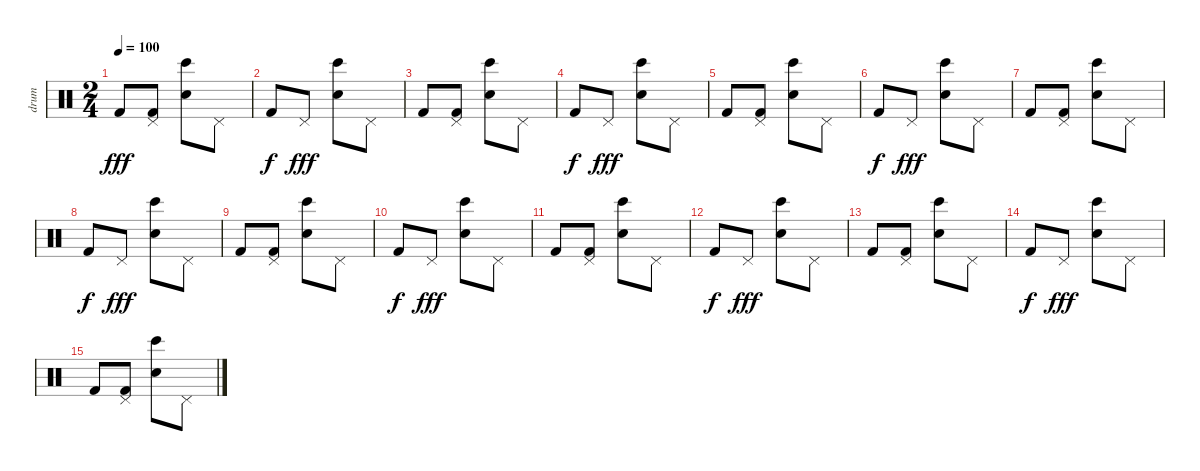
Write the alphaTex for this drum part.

\track ("drum" "drum") {instrument percussion}
\staff {score}
\articulation defaults
\ts (2 4)
\tempo 100
\clef neutral
\ks c "Kick (hit) 2".8{dy fff}
("Pedal Hi-Hat (hit)" "Kick (hit) 2").8 ("Electric Snare (hit)" "Bongo High (hit)").8 "Pedal Hi-Hat (hit)".8 |
"Kick (hit) 2".8{dy f} "Pedal Hi-Hat (hit)".8{dy fff} ("Electric Snare (hit)" "Bongo High (hit)").8 "Pedal Hi-Hat (hit)".8 |
"Kick (hit) 2".8 ("Pedal Hi-Hat (hit)" "Kick (hit) 2").8 ("Electric Snare (hit)" "Bongo High (hit)").8 "Pedal Hi-Hat (hit)".8 |
"Kick (hit) 2".8{dy f} "Pedal Hi-Hat (hit)".8{dy fff} ("Electric Snare (hit)" "Bongo High (hit)").8 "Pedal Hi-Hat (hit)".8 |
"Kick (hit) 2".8 ("Pedal Hi-Hat (hit)" "Kick (hit) 2").8 ("Electric Snare (hit)" "Bongo High (hit)").8 "Pedal Hi-Hat (hit)".8 |
"Kick (hit) 2".8{dy f} "Pedal Hi-Hat (hit)".8{dy fff} ("Electric Snare (hit)" "Bongo High (hit)").8 "Pedal Hi-Hat (hit)".8 |
"Kick (hit) 2".8 ("Pedal Hi-Hat (hit)" "Kick (hit) 2").8 ("Electric Snare (hit)" "Bongo High (hit)").8 "Pedal Hi-Hat (hit)".8 |
"Kick (hit) 2".8{dy f} "Pedal Hi-Hat (hit)".8{dy fff} ("Electric Snare (hit)" "Bongo High (hit)").8 "Pedal Hi-Hat (hit)".8 |
"Kick (hit) 2".8 ("Pedal Hi-Hat (hit)" "Kick (hit) 2").8 ("Electric Snare (hit)" "Bongo High (hit)").8 "Pedal Hi-Hat (hit)".8 |
"Kick (hit) 2".8{dy f} "Pedal Hi-Hat (hit)".8{dy fff} ("Electric Snare (hit)" "Bongo High (hit)").8 "Pedal Hi-Hat (hit)".8 |
"Kick (hit) 2".8 ("Pedal Hi-Hat (hit)" "Kick (hit) 2").8 ("Electric Snare (hit)" "Bongo High (hit)").8 "Pedal Hi-Hat (hit)".8 |
"Kick (hit) 2".8{dy f} "Pedal Hi-Hat (hit)".8{dy fff} ("Electric Snare (hit)" "Bongo High (hit)").8 "Pedal Hi-Hat (hit)".8 |
"Kick (hit) 2".8 ("Pedal Hi-Hat (hit)" "Kick (hit) 2").8 ("Electric Snare (hit)" "Bongo High (hit)").8 "Pedal Hi-Hat (hit)".8 |
"Kick (hit) 2".8{dy f} "Pedal Hi-Hat (hit)".8{dy fff} ("Electric Snare (hit)" "Bongo High (hit)").8 "Pedal Hi-Hat (hit)".8 |
"Kick (hit) 2".8 ("Pedal Hi-Hat (hit)" "Kick (hit) 2").8 ("Electric Snare (hit)" "Bongo High (hit)").8 "Pedal Hi-Hat (hit)".8
